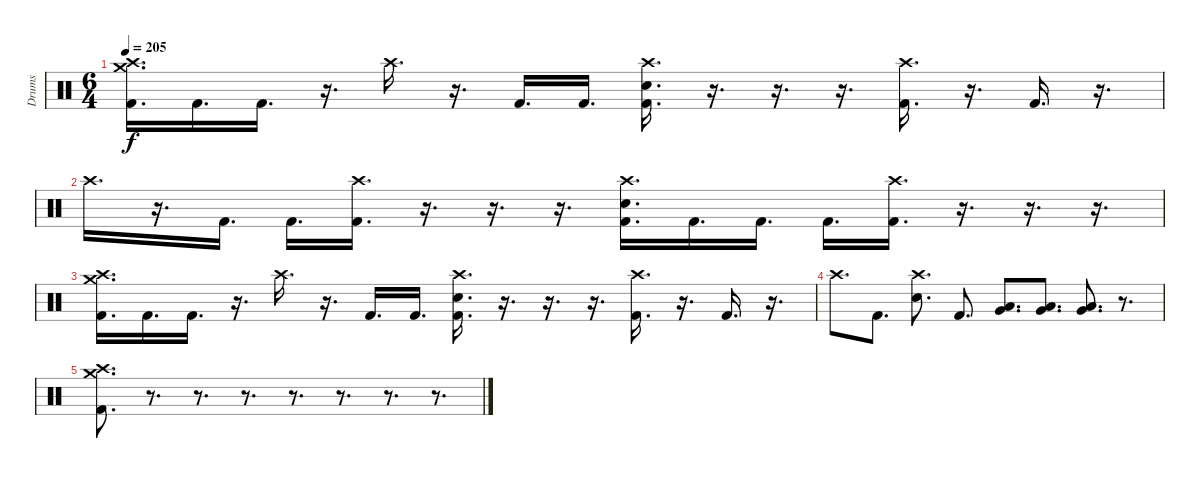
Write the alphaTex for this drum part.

\track ("Drums" "Drums") {instrument percussion}
\staff {score}
\articulation defaults
\ts (6 4)
\tempo 205
\clef neutral
\ks c
("Crash high (hit)" "Crash medium (hit)" "Kick (hit) 2").16{d dy f} "Kick (hit) 2".16{d} "Kick (hit) 2".16{d} r.16{d} "Crash high (hit)".16{d} r.16{d} "Kick (hit) 2".16{d} "Kick (hit) 2".16{d} ("Crash high (hit)" "Electric Snare (hit)" "Kick (hit) 2").16{d} r.16{d} r.16{d} r.16{d} ("Crash high (hit)" "Kick (hit) 2").16{d} r.16{d} "Kick (hit) 2".16{d} r.16{d} |
"Crash high (hit)".16{d} r.16{d} "Kick (hit) 2".16{d} "Kick (hit) 2".16{d} ("Crash high (hit)" "Kick (hit) 2").16{d} r.16{d} r.16{d} r.16{d} ("Crash high (hit)" "Electric Snare (hit)" "Kick (hit) 2").16{d} "Kick (hit) 2".16{d} "Kick (hit) 2".16{d} "Kick (hit) 2".16{d} ("Crash high (hit)" "Kick (hit) 2").16{d} r.16{d} r.16{d} r.16{d} |
("Crash high (hit)" "Crash medium (hit)" "Kick (hit) 2").16{d} "Kick (hit) 2".16{d} "Kick (hit) 2".16{d} r.16{d} "Crash high (hit)".16{d} r.16{d} "Kick (hit) 2".16{d} "Kick (hit) 2".16{d} ("Crash high (hit)" "Electric Snare (hit)" "Kick (hit) 2").16{d} r.16{d} r.16{d} r.16{d} ("Crash high (hit)" "Kick (hit) 2").16{d} r.16{d} "Kick (hit) 2".16{d} r.16{d} |
"Crash high (hit)".8{d} "Kick (hit) 2".8{d} ("Crash high (hit)" "Electric Snare (hit)").8{d} "Kick (hit) 2".8{d} ("Very Low Tom (hit)" "Low Floor Tom (hit)").8{d} ("Very Low Tom (hit)" "Low Floor Tom (hit)").8{d} ("Very Low Tom (hit)" "Low Floor Tom (hit)").8{d} r.8{d} |
("Crash medium (hit)" "Crash high (hit)" "Kick (hit) 2").8{d} r.8{d} r.8{d} r.8{d} r.8{d} r.8{d} r.8{d} r.8{d}
